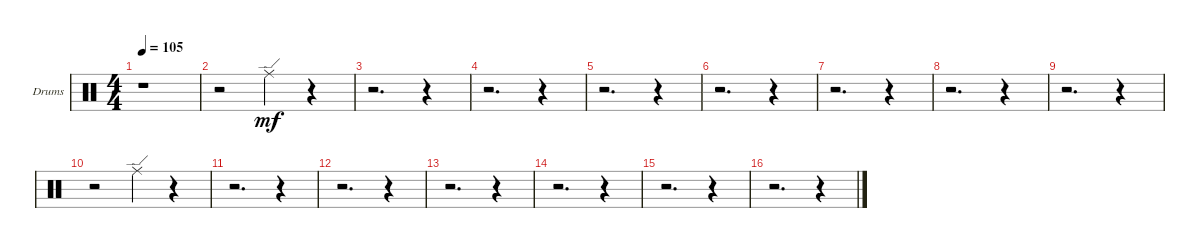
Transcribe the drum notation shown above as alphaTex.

\defaultSystemsLayout 4
\bracketExtendMode groupsimilarinstruments
\firstSystemTrackNameOrientation horizontal
\otherSystemsTrackNameOrientation horizontal
\track ("Drumkit" "Drums") {instrument percussion}
\staff {score}
\articulation defaults
\ts (4 4)
\tempo 105
\clef neutral
\scale
0.333333
\ks c
r.1{dy mf} |
\scale
0.333333 r.2 "Ride (edge)".4 r.4 |
\scale
0.333333 r.2{d} r.4 |
\scale
0.333333 r.2{d} r.4 |
\scale
0.333333 r.2{d} r.4 |
\scale
0.333333 r.2{d} r.4 |
\scale
0.333333 r.2{d} r.4 |
\scale
0.333333 r.2{d} r.4 |
\scale
0.333333 r.2{d} r.4 |
\scale
0.333333 r.2 "Ride (edge)".4 r.4 |
\scale
0.333333 r.2{d} r.4 |
\scale
0.333333 r.2{d} r.4 |
\scale
0.333333 r.2{d} r.4 |
\scale
0.333333 r.2{d} r.4 |
\scale
0.333333 r.2{d} r.4 |
\scale
0.333333 r.2{d} r.4
